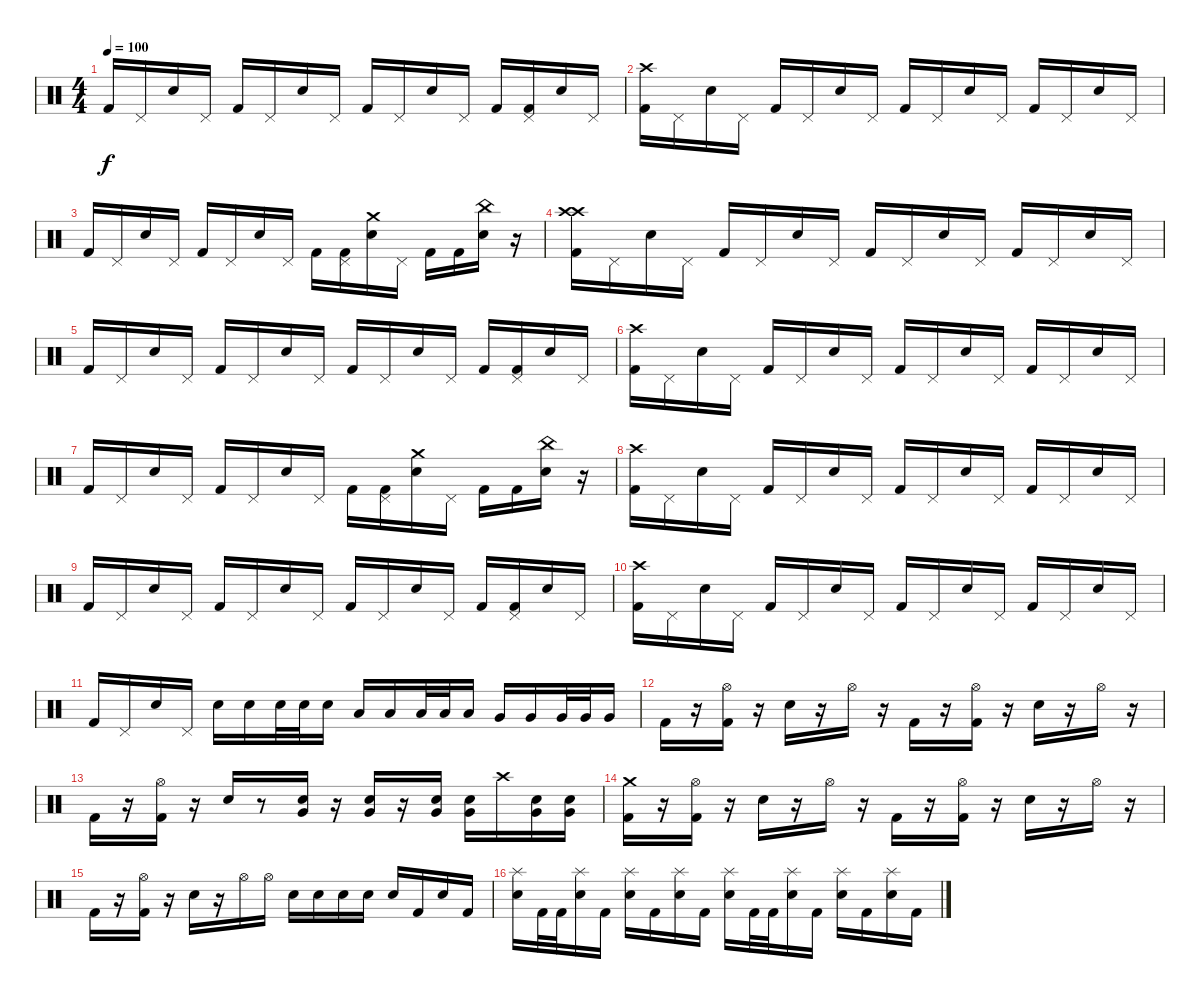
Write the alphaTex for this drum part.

\track "" {instrument percussion}
\staff {score}
\articulation defaults
\ts (4 4)
\tempo 100
\clef neutral
\ks c "Kick (hit) 2".16{dy f} "Pedal Hi-Hat (hit)".16 "Snare (hit) 2".16 "Pedal Hi-Hat (hit)".16 "Kick (hit) 2".16 "Pedal Hi-Hat (hit)".16 "Snare (hit) 2".16 "Pedal Hi-Hat (hit)".16 "Kick (hit) 2".16 "Pedal Hi-Hat (hit)".16 "Snare (hit) 2".16 "Pedal Hi-Hat (hit)".16 "Kick (hit) 2".16
("Pedal Hi-Hat (hit)" "Kick (hit) 2").16 "Snare (hit) 2".16 "Pedal Hi-Hat (hit)".16 |
("Crash high (hit)" "Kick (hit) 2").16 "Pedal Hi-Hat (hit)".16 "Snare (hit) 2".16 "Pedal Hi-Hat (hit)".16 "Kick (hit) 2".16 "Pedal Hi-Hat (hit)".16 "Snare (hit) 2".16 "Pedal Hi-Hat (hit)".16 "Kick (hit) 2".16 "Pedal Hi-Hat (hit)".16 "Snare (hit) 2".16 "Pedal Hi-Hat (hit)".16 "Kick (hit) 2".16 "Pedal Hi-Hat (hit)".16 "Snare (hit) 2".16 "Pedal Hi-Hat (hit)".16 |
"Kick (hit) 2".16 "Pedal Hi-Hat (hit)".16 "Snare (hit) 2".16 "Pedal Hi-Hat (hit)".16 "Kick (hit) 2".16 "Pedal Hi-Hat (hit)".16 "Snare (hit) 2".16 "Pedal Hi-Hat (hit)".16 "Kick (hit) 2".16 ("Pedal Hi-Hat (hit)" "Kick (hit) 2").16 ("Crash medium (hit)" "Snare (hit) 2").16 "Pedal Hi-Hat (hit)".16 "Kick (hit) 2".16 "Kick (hit) 2".16 ("China (hit)" "Snare (hit) 2").16 r.16 |
("Crash high (hit)" "Crash high (hit)" "Kick (hit) 2").16 "Pedal Hi-Hat (hit)".16 "Snare (hit) 2".16 "Pedal Hi-Hat (hit)".16 "Kick (hit) 2".16 "Pedal Hi-Hat (hit)".16 "Snare (hit) 2".16 "Pedal Hi-Hat (hit)".16 "Kick (hit) 2".16 "Pedal Hi-Hat (hit)".16 "Snare (hit) 2".16 "Pedal Hi-Hat (hit)".16 "Kick (hit) 2".16 "Pedal Hi-Hat (hit)".16 "Snare (hit) 2".16 "Pedal Hi-Hat (hit)".16 |
"Kick (hit) 2".16 "Pedal Hi-Hat (hit)".16 "Snare (hit) 2".16 "Pedal Hi-Hat (hit)".16 "Kick (hit) 2".16 "Pedal Hi-Hat (hit)".16 "Snare (hit) 2".16 "Pedal Hi-Hat (hit)".16 "Kick (hit) 2".16 "Pedal Hi-Hat (hit)".16 "Snare (hit) 2".16 "Pedal Hi-Hat (hit)".16 "Kick (hit) 2".16 ("Pedal Hi-Hat (hit)" "Kick (hit) 2").16 "Snare (hit) 2".16 "Pedal Hi-Hat (hit)".16 |
("Crash high (hit)" "Kick (hit) 2").16 "Pedal Hi-Hat (hit)".16 "Snare (hit) 2".16 "Pedal Hi-Hat (hit)".16 "Kick (hit) 2".16 "Pedal Hi-Hat (hit)".16 "Snare (hit) 2".16 "Pedal Hi-Hat (hit)".16 "Kick (hit) 2".16 "Pedal Hi-Hat (hit)".16 "Snare (hit) 2".16 "Pedal Hi-Hat (hit)".16 "Kick (hit) 2".16 "Pedal Hi-Hat (hit)".16 "Snare (hit) 2".16 "Pedal Hi-Hat (hit)".16 |
"Kick (hit) 2".16 "Pedal Hi-Hat (hit)".16 "Snare (hit) 2".16 "Pedal Hi-Hat (hit)".16 "Kick (hit) 2".16 "Pedal Hi-Hat (hit)".16 "Snare (hit) 2".16 "Pedal Hi-Hat (hit)".16 "Kick (hit) 2".16 ("Pedal Hi-Hat (hit)" "Kick (hit) 2").16 ("Crash medium (hit)" "Snare (hit) 2").16 "Pedal Hi-Hat (hit)".16 "Kick (hit) 2".16 "Kick (hit) 2".16 ("China (hit)" "Snare (hit) 2").16 r.16 |
("Crash high (hit)" "Kick (hit) 2").16 "Pedal Hi-Hat (hit)".16 "Snare (hit) 2".16 "Pedal Hi-Hat (hit)".16 "Kick (hit) 2".16 "Pedal Hi-Hat (hit)".16 "Snare (hit) 2".16 "Pedal Hi-Hat (hit)".16 "Kick (hit) 2".16 "Pedal Hi-Hat (hit)".16 "Snare (hit) 2".16 "Pedal Hi-Hat (hit)".16 "Kick (hit) 2".16 "Pedal Hi-Hat (hit)".16 "Snare (hit) 2".16 "Pedal Hi-Hat (hit)".16 |
"Kick (hit) 2".16 "Pedal Hi-Hat (hit)".16 "Snare (hit) 2".16 "Pedal Hi-Hat (hit)".16 "Kick (hit) 2".16 "Pedal Hi-Hat (hit)".16 "Snare (hit) 2".16 "Pedal Hi-Hat (hit)".16 "Kick (hit) 2".16 "Pedal Hi-Hat (hit)".16 "Snare (hit) 2".16 "Pedal Hi-Hat (hit)".16 "Kick (hit) 2".16 ("Pedal Hi-Hat (hit)" "Kick (hit) 2").16 "Snare (hit) 2".16 "Pedal Hi-Hat (hit)".16 |
("Crash high (hit)" "Kick (hit) 2").16 "Pedal Hi-Hat (hit)".16 "Snare (hit) 2".16 "Pedal Hi-Hat (hit)".16 "Kick (hit) 2".16 "Pedal Hi-Hat (hit)".16 "Snare (hit) 2".16 "Pedal Hi-Hat (hit)".16 "Kick (hit) 2".16 "Pedal Hi-Hat (hit)".16 "Snare (hit) 2".16 "Pedal Hi-Hat (hit)".16 "Kick (hit) 2".16 "Pedal Hi-Hat (hit)".16 "Snare (hit) 2".16 "Pedal Hi-Hat (hit)".16 |
"Kick (hit) 2".16 "Pedal Hi-Hat (hit)".16 "Snare (hit) 2".16 "Pedal Hi-Hat (hit)".16 "Snare (hit) 2".16 "Snare (hit) 2".16 "Snare (hit) 2".32 "Snare (hit) 2".32 "Snare (hit) 2".16 "Low Tom (hit)".16 "Low Tom (hit)".16 "Low Tom (hit)".32 "Low Tom (hit)".32 "Low Tom (hit)".16 "Very Low Tom (hit)".16 "Very Low Tom (hit)".16 "Very Low Tom (hit)".32 "Very Low Tom (hit)".32 "Very Low Tom (hit)".16 |
"Kick (hit) 2".16 r.16 ("Hi-Hat (open)" "Kick (hit) 2").16 r.16 "Snare (hit) 2".16 r.16 "Hi-Hat (open)".16 r.16 "Kick (hit) 2".16 r.16 ("Hi-Hat (open)" "Kick (hit) 2").16 r.16 "Snare (hit) 2".16 r.16 "Hi-Hat (open)".16 r.16 |
"Kick (hit) 2".16 r.16 ("Hi-Hat (open)" "Kick (hit) 2").16 r.16 "Snare (hit) 2".16 r.8 ("Snare (hit) 2" "Very Low Tom (hit)").16 r.16 ("Snare (hit) 2" "Very Low Tom (hit)").16 r.16 ("Snare (hit) 2" "Very Low Tom (hit)").16 ("Snare (hit) 2" "Very Low Tom (hit)").16 "Crash high (hit)".16 ("Snare (hit) 2" "Very Low Tom (hit)").16 ("Snare (hit) 2" "Very Low Tom (hit)").16 |
("Crash medium (hit)" "Kick (hit) 2").16 r.16 ("Hi-Hat (open)" "Kick (hit) 2").16 r.16 "Snare (hit) 2".16 r.16 "Hi-Hat (open)".16 r.16 "Kick (hit) 2".16 r.16 ("Hi-Hat (open)" "Kick (hit) 2").16 r.16 "Snare (hit) 2".16 r.16 "Hi-Hat (open)".16 r.16 |
"Kick (hit) 2".16 r.16 ("Hi-Hat (open)" "Kick (hit) 2").16 r.16 "Snare (hit) 2".16 r.16 "Hi-Hat (open)".16 "Hi-Hat (open)".16 "Snare (hit) 2".16 "Snare (hit) 2".16 "Snare (hit) 2".16 "Snare (hit) 2".16 "Snare (hit) 2".16 "Kick (hit) 2".16 "Snare (hit) 2".16 "Kick (hit) 2".16 |
("Splash (hit)" "Snare (hit) 2").16 "Kick (hit) 2".32 "Kick (hit) 2".32 ("Splash (hit)" "Snare (hit) 2").16 "Kick (hit) 2".16 ("Splash (hit)" "Snare (hit) 2").16 "Kick (hit) 2".16 ("Splash (hit)" "Snare (hit) 2").16 "Kick (hit) 2".16 ("Splash (hit)" "Snare (hit) 2").16 "Kick (hit) 2".32 "Kick (hit) 2".32 ("Splash (hit)" "Snare (hit) 2").16 "Kick (hit) 2".16 ("Splash (hit)" "Snare (hit) 2").16 "Kick (hit) 2".16 ("Splash (hit)" "Snare (hit) 2").16 "Kick (hit) 2".16
